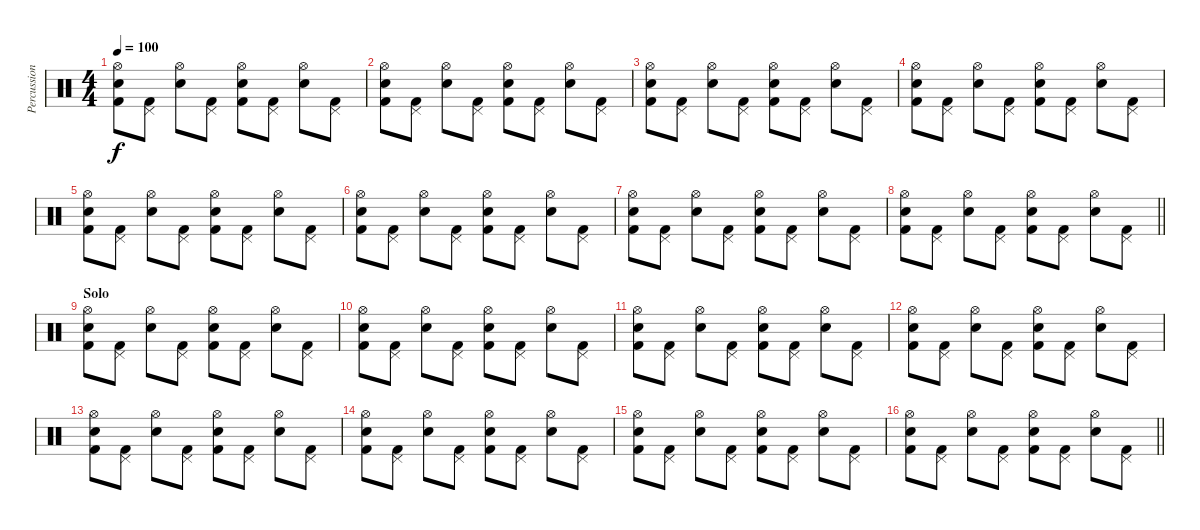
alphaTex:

\track ("Percussion" "Percussion") {instrument percussion}
\staff {score}
\articulation defaults
\ts (4 4)
\tempo 100
\clef neutral
\ks c
("Hi-Hat (open)" "Electric Snare (hit)" "Kick (hit) 2").8{dy f} ("Pedal Hi-Hat (hit)" "Kick (hit) 2").8 ("Hi-Hat (open)" "Electric Snare (hit)").8 ("Pedal Hi-Hat (hit)" "Kick (hit) 2").8 ("Hi-Hat (open)" "Electric Snare (hit)" "Kick (hit) 2").8 ("Pedal Hi-Hat (hit)" "Kick (hit) 2").8 ("Hi-Hat (open)" "Electric Snare (hit)").8 ("Pedal Hi-Hat (hit)" "Kick (hit) 2").8 |
("Hi-Hat (open)" "Electric Snare (hit)" "Kick (hit) 2").8 ("Pedal Hi-Hat (hit)" "Kick (hit) 2").8 ("Hi-Hat (open)" "Electric Snare (hit)").8 ("Pedal Hi-Hat (hit)" "Kick (hit) 2").8 ("Hi-Hat (open)" "Electric Snare (hit)" "Kick (hit) 2").8 ("Pedal Hi-Hat (hit)" "Kick (hit) 2").8 ("Hi-Hat (open)" "Electric Snare (hit)").8 ("Pedal Hi-Hat (hit)" "Kick (hit) 2").8 |
("Hi-Hat (open)" "Electric Snare (hit)" "Kick (hit) 2").8 ("Pedal Hi-Hat (hit)" "Kick (hit) 2").8 ("Hi-Hat (open)" "Electric Snare (hit)").8 ("Pedal Hi-Hat (hit)" "Kick (hit) 2").8 ("Hi-Hat (open)" "Electric Snare (hit)" "Kick (hit) 2").8 ("Pedal Hi-Hat (hit)" "Kick (hit) 2").8 ("Hi-Hat (open)" "Electric Snare (hit)").8 ("Pedal Hi-Hat (hit)" "Kick (hit) 2").8 |
("Hi-Hat (open)" "Electric Snare (hit)" "Kick (hit) 2").8 ("Pedal Hi-Hat (hit)" "Kick (hit) 2").8 ("Hi-Hat (open)" "Electric Snare (hit)").8 ("Pedal Hi-Hat (hit)" "Kick (hit) 2").8 ("Hi-Hat (open)" "Electric Snare (hit)" "Kick (hit) 2").8 ("Pedal Hi-Hat (hit)" "Kick (hit) 2").8 ("Hi-Hat (open)" "Electric Snare (hit)").8 ("Pedal Hi-Hat (hit)" "Kick (hit) 2").8 |
("Hi-Hat (open)" "Electric Snare (hit)" "Kick (hit) 2").8 ("Pedal Hi-Hat (hit)" "Kick (hit) 2").8 ("Hi-Hat (open)" "Electric Snare (hit)").8 ("Pedal Hi-Hat (hit)" "Kick (hit) 2").8 ("Hi-Hat (open)" "Electric Snare (hit)" "Kick (hit) 2").8 ("Pedal Hi-Hat (hit)" "Kick (hit) 2").8 ("Hi-Hat (open)" "Electric Snare (hit)").8 ("Pedal Hi-Hat (hit)" "Kick (hit) 2").8 |
("Hi-Hat (open)" "Electric Snare (hit)" "Kick (hit) 2").8 ("Pedal Hi-Hat (hit)" "Kick (hit) 2").8 ("Hi-Hat (open)" "Electric Snare (hit)").8 ("Pedal Hi-Hat (hit)" "Kick (hit) 2").8 ("Hi-Hat (open)" "Electric Snare (hit)" "Kick (hit) 2").8 ("Pedal Hi-Hat (hit)" "Kick (hit) 2").8 ("Hi-Hat (open)" "Electric Snare (hit)").8 ("Pedal Hi-Hat (hit)" "Kick (hit) 2").8 |
("Hi-Hat (open)" "Electric Snare (hit)" "Kick (hit) 2").8 ("Pedal Hi-Hat (hit)" "Kick (hit) 2").8 ("Hi-Hat (open)" "Electric Snare (hit)").8 ("Pedal Hi-Hat (hit)" "Kick (hit) 2").8 ("Hi-Hat (open)" "Electric Snare (hit)" "Kick (hit) 2").8 ("Pedal Hi-Hat (hit)" "Kick (hit) 2").8 ("Hi-Hat (open)" "Electric Snare (hit)").8 ("Pedal Hi-Hat (hit)" "Kick (hit) 2").8 |
\barLineRight lightlight
("Hi-Hat (open)" "Electric Snare (hit)" "Kick (hit) 2").8 ("Pedal Hi-Hat (hit)" "Kick (hit) 2").8 ("Hi-Hat (open)" "Electric Snare (hit)").8 ("Pedal Hi-Hat (hit)" "Kick (hit) 2").8 ("Hi-Hat (open)" "Electric Snare (hit)" "Kick (hit) 2").8 ("Pedal Hi-Hat (hit)" "Kick (hit) 2").8 ("Hi-Hat (open)" "Electric Snare (hit)").8 ("Pedal Hi-Hat (hit)" "Kick (hit) 2").8 |
\section ("" "Solo")
("Hi-Hat (open)" "Electric Snare (hit)" "Kick (hit) 2").8 ("Pedal Hi-Hat (hit)" "Kick (hit) 2").8 ("Hi-Hat (open)" "Electric Snare (hit)").8 ("Pedal Hi-Hat (hit)" "Kick (hit) 2").8 ("Hi-Hat (open)" "Electric Snare (hit)" "Kick (hit) 2").8 ("Pedal Hi-Hat (hit)" "Kick (hit) 2").8 ("Hi-Hat (open)" "Electric Snare (hit)").8 ("Pedal Hi-Hat (hit)" "Kick (hit) 2").8 |
("Hi-Hat (open)" "Electric Snare (hit)" "Kick (hit) 2").8 ("Pedal Hi-Hat (hit)" "Kick (hit) 2").8 ("Hi-Hat (open)" "Electric Snare (hit)").8 ("Pedal Hi-Hat (hit)" "Kick (hit) 2").8 ("Hi-Hat (open)" "Electric Snare (hit)" "Kick (hit) 2").8 ("Pedal Hi-Hat (hit)" "Kick (hit) 2").8 ("Hi-Hat (open)" "Electric Snare (hit)").8 ("Pedal Hi-Hat (hit)" "Kick (hit) 2").8 |
("Hi-Hat (open)" "Electric Snare (hit)" "Kick (hit) 2").8 ("Pedal Hi-Hat (hit)" "Kick (hit) 2").8 ("Hi-Hat (open)" "Electric Snare (hit)").8 ("Pedal Hi-Hat (hit)" "Kick (hit) 2").8 ("Hi-Hat (open)" "Electric Snare (hit)" "Kick (hit) 2").8 ("Pedal Hi-Hat (hit)" "Kick (hit) 2").8 ("Hi-Hat (open)" "Electric Snare (hit)").8 ("Pedal Hi-Hat (hit)" "Kick (hit) 2").8 |
("Hi-Hat (open)" "Electric Snare (hit)" "Kick (hit) 2").8 ("Pedal Hi-Hat (hit)" "Kick (hit) 2").8 ("Hi-Hat (open)" "Electric Snare (hit)").8 ("Pedal Hi-Hat (hit)" "Kick (hit) 2").8 ("Hi-Hat (open)" "Electric Snare (hit)" "Kick (hit) 2").8 ("Pedal Hi-Hat (hit)" "Kick (hit) 2").8 ("Hi-Hat (open)" "Electric Snare (hit)").8 ("Pedal Hi-Hat (hit)" "Kick (hit) 2").8 |
("Hi-Hat (open)" "Electric Snare (hit)" "Kick (hit) 2").8 ("Pedal Hi-Hat (hit)" "Kick (hit) 2").8 ("Hi-Hat (open)" "Electric Snare (hit)").8 ("Pedal Hi-Hat (hit)" "Kick (hit) 2").8 ("Hi-Hat (open)" "Electric Snare (hit)" "Kick (hit) 2").8 ("Pedal Hi-Hat (hit)" "Kick (hit) 2").8 ("Hi-Hat (open)" "Electric Snare (hit)").8 ("Pedal Hi-Hat (hit)" "Kick (hit) 2").8 |
("Hi-Hat (open)" "Electric Snare (hit)" "Kick (hit) 2").8 ("Pedal Hi-Hat (hit)" "Kick (hit) 2").8 ("Hi-Hat (open)" "Electric Snare (hit)").8 ("Pedal Hi-Hat (hit)" "Kick (hit) 2").8 ("Hi-Hat (open)" "Electric Snare (hit)" "Kick (hit) 2").8 ("Pedal Hi-Hat (hit)" "Kick (hit) 2").8 ("Hi-Hat (open)" "Electric Snare (hit)").8 ("Pedal Hi-Hat (hit)" "Kick (hit) 2").8 |
("Hi-Hat (open)" "Electric Snare (hit)" "Kick (hit) 2").8 ("Pedal Hi-Hat (hit)" "Kick (hit) 2").8 ("Hi-Hat (open)" "Electric Snare (hit)").8 ("Pedal Hi-Hat (hit)" "Kick (hit) 2").8 ("Hi-Hat (open)" "Electric Snare (hit)" "Kick (hit) 2").8 ("Pedal Hi-Hat (hit)" "Kick (hit) 2").8 ("Hi-Hat (open)" "Electric Snare (hit)").8 ("Pedal Hi-Hat (hit)" "Kick (hit) 2").8 |
\barLineRight lightlight
("Hi-Hat (open)" "Electric Snare (hit)" "Kick (hit) 2").8 ("Pedal Hi-Hat (hit)" "Kick (hit) 2").8 ("Hi-Hat (open)" "Electric Snare (hit)").8 ("Pedal Hi-Hat (hit)" "Kick (hit) 2").8 ("Hi-Hat (open)" "Electric Snare (hit)" "Kick (hit) 2").8 ("Pedal Hi-Hat (hit)" "Kick (hit) 2").8 ("Hi-Hat (open)" "Electric Snare (hit)").8 ("Pedal Hi-Hat (hit)" "Kick (hit) 2").8
